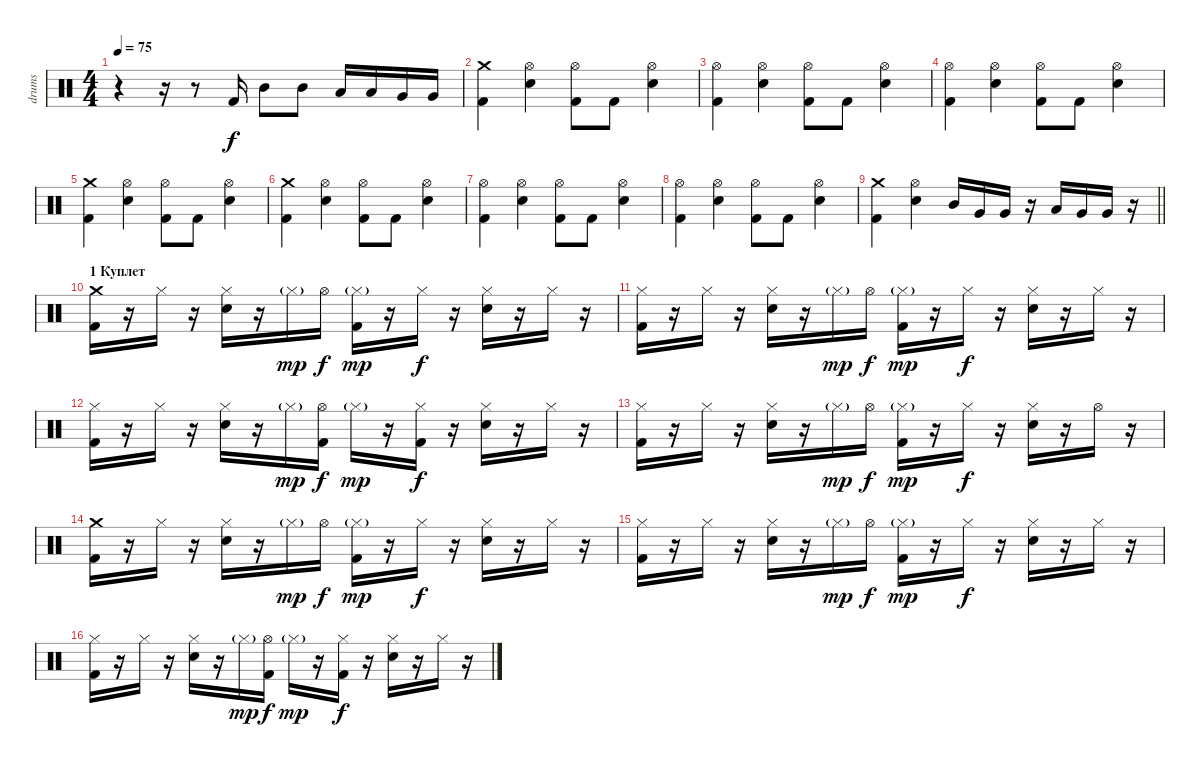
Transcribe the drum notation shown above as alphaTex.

\track ("drums" "drums") {instrument percussion}
\staff {score}
\articulation defaults
\ts (4 4)
\tempo 75
\clef neutral
\ks c
r.4{dy f} r.16 r.8 "Kick (hit) 2".16 "Mid Tom (hit)".8 "Mid Tom (hit)".8 "Low Tom (hit)".16 "Low Tom (hit)".16 "Very Low Tom (hit)".16 "Very Low Tom (hit)".16 |
("Crash medium (hit)" "Kick (hit) 2").4 ("Hi-Hat (open)" "Snare (hit) 2").4 ("Hi-Hat (open)" "Kick (hit) 2").8 "Kick (hit) 2".8 ("Hi-Hat (open)" "Snare (hit) 2").4 |
("Hi-Hat (open)" "Kick (hit) 2").4 ("Hi-Hat (open)" "Snare (hit) 2").4 ("Hi-Hat (open)" "Kick (hit) 2").8 "Kick (hit) 2".8 ("Hi-Hat (open)" "Snare (hit) 2").4 |
("Hi-Hat (open)" "Kick (hit) 2").4 ("Hi-Hat (open)" "Snare (hit) 2").4 ("Hi-Hat (open)" "Kick (hit) 2").8 "Kick (hit) 2".8 ("Hi-Hat (open)" "Snare (hit) 2").4 |
("Crash medium (hit)" "Kick (hit) 2").4 ("Hi-Hat (open)" "Snare (hit) 2").4 ("Hi-Hat (open)" "Kick (hit) 2").8 "Kick (hit) 2".8 ("Hi-Hat (open)" "Snare (hit) 2").4 |
("Crash medium (hit)" "Kick (hit) 2").4 ("Hi-Hat (open)" "Snare (hit) 2").4 ("Hi-Hat (open)" "Kick (hit) 2").8 "Kick (hit) 2".8 ("Hi-Hat (open)" "Snare (hit) 2").4 |
("Hi-Hat (open)" "Kick (hit) 2").4 ("Hi-Hat (open)" "Snare (hit) 2").4 ("Hi-Hat (open)" "Kick (hit) 2").8 "Kick (hit) 2".8 ("Hi-Hat (open)" "Snare (hit) 2").4 |
("Hi-Hat (open)" "Kick (hit) 2").4 ("Hi-Hat (open)" "Snare (hit) 2").4 ("Hi-Hat (open)" "Kick (hit) 2").8 "Kick (hit) 2".8 ("Hi-Hat (open)" "Snare (hit) 2").4 |
\barLineRight lightlight
("Crash medium (hit)" "Kick (hit) 2").4 ("Hi-Hat (open)" "Snare (hit) 2").4 "Mid Tom (hit)".16 "Very Low Tom (hit)".16 "Very Low Tom (hit)".16 r.16 "Low Tom (hit)".16 "Very Low Tom (hit)".16 "Very Low Tom (hit)".16 r.16 |
\section ("" "1 Куплет")
("Crash medium (hit)" "Kick (hit) 2").16 r.16 "Hi-Hat (closed)".16 r.16 ("Hi-Hat (closed)" "Snare (hit) 2").16 r.16 "Hi-Hat (closed)"{g}.16{dy mp} "Hi-Hat (open)".16{dy f} ("Hi-Hat (closed)"{g} "Kick (hit) 2").16{dy mp} r.16 "Hi-Hat (closed)".16{dy f} r.16 ("Hi-Hat (closed)" "Snare (hit) 2").16 r.16 "Hi-Hat (closed)".16 r.16 |
("Hi-Hat (closed)" "Kick (hit) 2").16 r.16 "Hi-Hat (closed)".16 r.16 ("Hi-Hat (closed)" "Snare (hit) 2").16 r.16 "Hi-Hat (closed)"{g}.16{dy mp} "Hi-Hat (open)".16{dy f} ("Hi-Hat (closed)"{g} "Kick (hit) 2").16{dy mp} r.16 "Hi-Hat (closed)".16{dy f} r.16 ("Hi-Hat (closed)" "Snare (hit) 2").16 r.16 "Hi-Hat (closed)".16 r.16 |
("Hi-Hat (closed)" "Kick (hit) 2").16 r.16 "Hi-Hat (closed)".16 r.16 ("Hi-Hat (closed)" "Snare (hit) 2").16 r.16 "Hi-Hat (closed)"{g}.16{dy mp} ("Hi-Hat (open)" "Kick (hit) 2").16{dy f} "Hi-Hat (closed)"{g}.16{dy mp} r.16 ("Hi-Hat (closed)" "Kick (hit) 2").16{dy f} r.16 ("Hi-Hat (closed)" "Snare (hit) 2").16 r.16 "Hi-Hat (closed)".16 r.16 |
("Hi-Hat (closed)" "Kick (hit) 2").16 r.16 "Hi-Hat (closed)".16 r.16 ("Hi-Hat (closed)" "Snare (hit) 2").16 r.16 "Hi-Hat (closed)"{g}.16{dy mp} "Hi-Hat (open)".16{dy f} ("Hi-Hat (closed)"{g} "Kick (hit) 2").16{dy mp} r.16 "Hi-Hat (closed)".16{dy f} r.16 ("Hi-Hat (closed)" "Snare (hit) 2").16 r.16 "Hi-Hat (open)".16 r.16 |
("Crash medium (hit)" "Kick (hit) 2").16 r.16 "Hi-Hat (closed)".16 r.16 ("Hi-Hat (closed)" "Snare (hit) 2").16 r.16 "Hi-Hat (closed)"{g}.16{dy mp} "Hi-Hat (open)".16{dy f} ("Hi-Hat (closed)"{g} "Kick (hit) 2").16{dy mp} r.16 "Hi-Hat (closed)".16{dy f} r.16 ("Hi-Hat (closed)" "Snare (hit) 2").16 r.16 "Hi-Hat (closed)".16 r.16 |
("Hi-Hat (closed)" "Kick (hit) 2").16 r.16 "Hi-Hat (closed)".16 r.16 ("Hi-Hat (closed)" "Snare (hit) 2").16 r.16 "Hi-Hat (closed)"{g}.16{dy mp} "Hi-Hat (open)".16{dy f} ("Hi-Hat (closed)"{g} "Kick (hit) 2").16{dy mp} r.16 "Hi-Hat (closed)".16{dy f} r.16 ("Hi-Hat (closed)" "Snare (hit) 2").16 r.16 "Hi-Hat (closed)".16 r.16 |
("Hi-Hat (closed)" "Kick (hit) 2").16 r.16 "Hi-Hat (closed)".16 r.16 ("Hi-Hat (closed)" "Snare (hit) 2").16 r.16 "Hi-Hat (closed)"{g}.16{dy mp} ("Hi-Hat (open)" "Kick (hit) 2").16{dy f} "Hi-Hat (closed)"{g}.16{dy mp} r.16 ("Hi-Hat (closed)" "Kick (hit) 2").16{dy f} r.16 ("Hi-Hat (closed)" "Snare (hit) 2").16 r.16 "Hi-Hat (closed)".16 r.16
